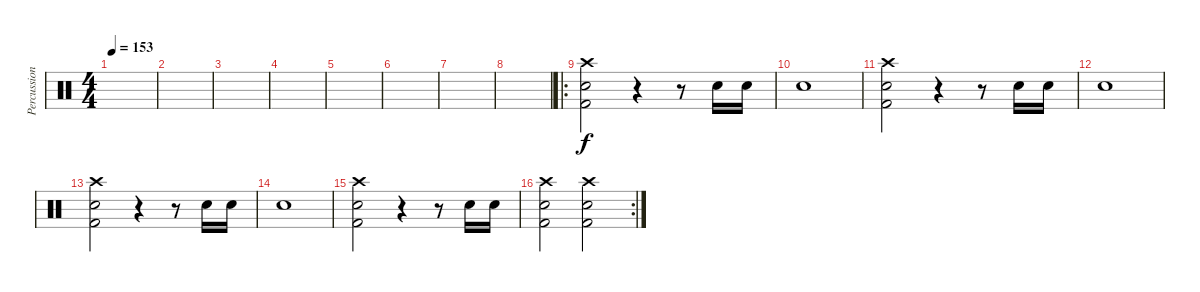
\track ("Percussion" "Percussion") {instrument percussion}
\staff {score}
\articulation defaults
\ts (4 4)
\tempo 153
\clef neutral
\ks c
|
|
|
|
|
|
|
|
\ro
("Crash high (hit)" "Snare (hit) 2" "Kick (hit) 2").2 r.4 r.8 "Snare (hit) 2".16 "Snare (hit) 2".16 |
"Snare (hit) 2".1 |
("Crash high (hit)" "Snare (hit) 2" "Kick (hit) 2").2 r.4 r.8 "Snare (hit) 2".16 "Snare (hit) 2".16 |
"Snare (hit) 2".1 |
("Crash high (hit)" "Snare (hit) 2" "Kick (hit) 2").2 r.4 r.8 "Snare (hit) 2".16 "Snare (hit) 2".16 |
"Snare (hit) 2".1 |
("Crash high (hit)" "Snare (hit) 2" "Kick (hit) 2").2 r.4 r.8 "Snare (hit) 2".16 "Snare (hit) 2".16 |
\rc 2
("Crash high (hit)" "Snare (hit) 2" "Kick (hit) 2").2 ("Crash high (hit)" "Snare (hit) 2" "Kick (hit) 2").2
